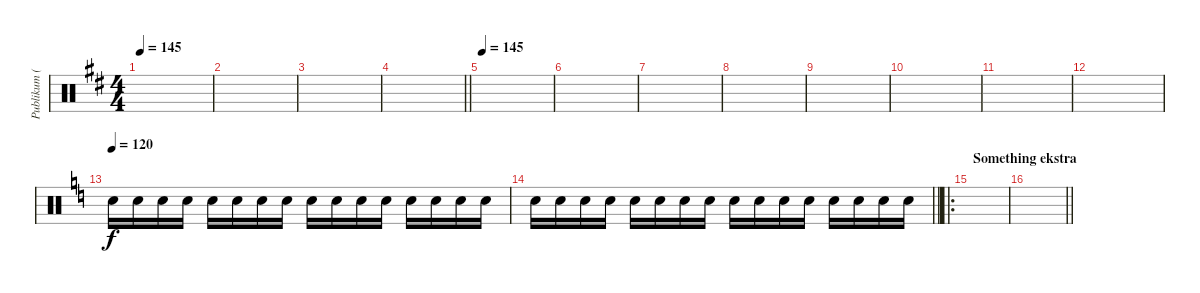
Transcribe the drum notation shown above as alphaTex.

\track ("Publikum (klapper)" "Publikum (") {instrument percussion}
\staff {score}
\articulation defaults
\ts (4 4)
\tempo 145
\clef neutral
\ks d
|
|
|
\barLineRight lightlight
|
\tempo 145
|
|
|
|
|
|
|
|
\tempo 120
\ks c "Hand Clap (hit)".16 "Hand Clap (hit)".16 "Hand Clap (hit)".16 "Hand Clap (hit)".16 "Hand Clap (hit)".16 "Hand Clap (hit)".16 "Hand Clap (hit)".16 "Hand Clap (hit)".16 "Hand Clap (hit)".16 "Hand Clap (hit)".16 "Hand Clap (hit)".16 "Hand Clap (hit)".16 "Hand Clap (hit)".16 "Hand Clap (hit)".16 "Hand Clap (hit)".16 "Hand Clap (hit)".16
|
\barLineRight lightlight "Hand Clap (hit)".16 "Hand Clap (hit)".16 "Hand Clap (hit)".16 "Hand Clap (hit)".16 "Hand Clap (hit)".16 "Hand Clap (hit)".16 "Hand Clap (hit)".16 "Hand Clap (hit)".16 "Hand Clap (hit)".16 "Hand Clap (hit)".16 "Hand Clap (hit)".16 "Hand Clap (hit)".16 "Hand Clap (hit)".16 "Hand Clap (hit)".16 "Hand Clap (hit)".16 "Hand Clap (hit)".16
|
\ro
\section ("" "Something ekstra")
|
\barLineRight lightlight
